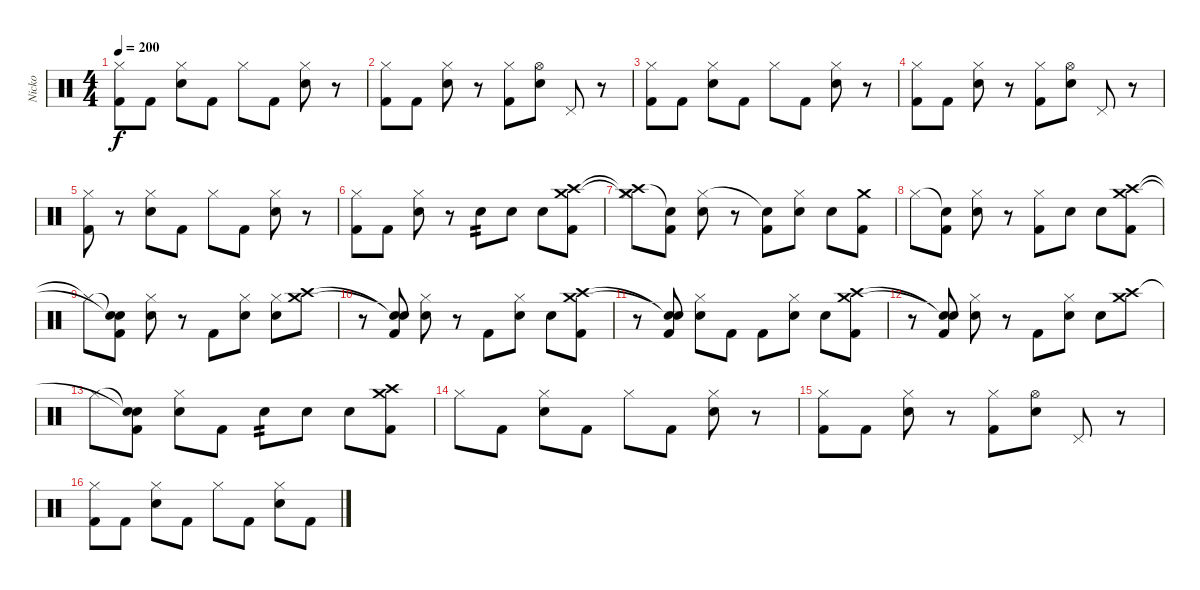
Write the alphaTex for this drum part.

\track ("Nicko" "Nicko") {instrument percussion}
\staff {score}
\articulation defaults
\ts (4 4)
\tempo 200
\clef neutral
\ks c
("Hi-Hat (closed)" "Kick (hit) 2").8{dy f} "Kick (hit) 2".8 ("Hi-Hat (closed)" "Electric Snare (hit)").8 "Kick (hit) 2".8 "Hi-Hat (closed)".8 "Kick (hit) 2".8 ("Hi-Hat (closed)" "Electric Snare (hit)").8 r.8 |
("Hi-Hat (closed)" "Kick (hit) 2").8 "Kick (hit) 2".8 ("Hi-Hat (closed)" "Electric Snare (hit)").8 r.8 ("Hi-Hat (closed)" "Kick (hit) 2").8 ("Hi-Hat (open)" "Electric Snare (hit)").8 "Pedal Hi-Hat (hit)".8 r.8 |
("Hi-Hat (closed)" "Kick (hit) 2").8 "Kick (hit) 2".8 ("Hi-Hat (closed)" "Electric Snare (hit)").8 "Kick (hit) 2".8 "Hi-Hat (closed)".8 "Kick (hit) 2".8 ("Hi-Hat (closed)" "Electric Snare (hit)").8 r.8 |
("Hi-Hat (closed)" "Kick (hit) 2").8 "Kick (hit) 2".8 ("Hi-Hat (closed)" "Electric Snare (hit)").8 r.8 ("Hi-Hat (closed)" "Kick (hit) 2").8 ("Hi-Hat (open)" "Electric Snare (hit)").8 "Pedal Hi-Hat (hit)".8 r.8 |
("Hi-Hat (closed)" "Kick (hit) 2").8 r.8 ("Hi-Hat (closed)" "Electric Snare (hit)").8 "Kick (hit) 2".8 "Hi-Hat (closed)".8 "Kick (hit) 2".8 ("Hi-Hat (closed)" "Electric Snare (hit)").8 r.8 |
("Hi-Hat (closed)" "Kick (hit) 2").8 "Kick (hit) 2".8 ("Hi-Hat (closed)" "Electric Snare (hit)").8 r.8 "Electric Snare (hit)".8{tp 2} "Electric Snare (hit)".8 "Electric Snare (hit)".8 ("Crash high (hit)" "Crash medium (hit)" "Kick (hit) 2").8 |
("Crash high (hit)"{t} "Crash medium (hit)"{t} "Hi-Hat (closed)").8 ("Snare (hit)"{t} "Kick (hit) 2").8 ("Hi-Hat (closed)" "Electric Snare (hit)").8 r.8 ("Snare (hit)"{t} "Kick (hit) 2").8 ("Hi-Hat (closed)" "Electric Snare (hit)").8 "Electric Snare (hit)".8 ("Crash medium (hit)" "Kick (hit) 2").8 |
"Hi-Hat (closed)".8 ("Snare (hit)"{t} "Kick (hit) 2").8 ("Hi-Hat (closed)" "Electric Snare (hit)").8 r.8 ("Hi-Hat (closed)" "Kick (hit) 2").8 "Electric Snare (hit)".8 "Electric Snare (hit)".8 ("Crash high (hit)" "Crash medium (hit)" "Kick (hit) 2").8 |
"Hi-Hat (closed)"{t}.8 ("Snare (hit)"{t} "Snare (hit)"{t} "Kick (hit) 2").8 ("Hi-Hat (closed)" "Electric Snare (hit)").8 r.8 "Kick (hit) 2".8 ("Hi-Hat (closed)" "Electric Snare (hit)").8 ("Hi-Hat (closed)" "Electric Snare (hit)").8 ("Crash medium (hit)" "Crash high (hit)").8 |
r.8 ("Snare (hit)"{t} "Snare (hit)"{t} "Kick (hit) 2").8 ("Hi-Hat (closed)" "Electric Snare (hit)").8 r.8 "Kick (hit) 2".8 ("Hi-Hat (closed)" "Electric Snare (hit)").8 "Electric Snare (hit)".8 ("Crash medium (hit)" "Crash high (hit)" "Kick (hit) 2").8 |
r.8 ("Snare (hit)"{t} "Snare (hit)"{t} "Kick (hit) 2").8 ("Hi-Hat (closed)" "Electric Snare (hit)").8 "Kick (hit) 2".8 "Kick (hit) 2".8 ("Hi-Hat (closed)" "Electric Snare (hit)").8 "Electric Snare (hit)".8 ("Crash medium (hit)" "Crash high (hit)" "Kick (hit) 2").8 |
r.8 ("Snare (hit)"{t} "Snare (hit)"{t} "Kick (hit) 2").8 ("Hi-Hat (closed)" "Electric Snare (hit)").8 r.8 "Kick (hit) 2".8 ("Hi-Hat (closed)" "Electric Snare (hit)").8 "Electric Snare (hit)".8 ("Crash medium (hit)" "Crash high (hit)").8 |
"Hi-Hat (closed)".8 ("Snare (hit)"{t} "Snare (hit)"{t} "Kick (hit) 2").8 ("Hi-Hat (closed)" "Electric Snare (hit)").8 "Kick (hit) 2".8 "Electric Snare (hit)".8{tp 2} "Electric Snare (hit)".8 "Electric Snare (hit)".8 ("Crash medium (hit)" "Crash high (hit)" "Kick (hit) 2").8 |
"Hi-Hat (closed)".8 "Kick (hit) 2".8 ("Hi-Hat (closed)" "Electric Snare (hit)").8 "Kick (hit) 2".8 "Hi-Hat (closed)".8 "Kick (hit) 2".8 ("Hi-Hat (closed)" "Electric Snare (hit)").8 r.8 |
("Hi-Hat (closed)" "Kick (hit) 2").8 "Kick (hit) 2".8 ("Hi-Hat (closed)" "Electric Snare (hit)").8 r.8 ("Hi-Hat (closed)" "Kick (hit) 2").8 ("Hi-Hat (open)" "Electric Snare (hit)").8 "Pedal Hi-Hat (hit)".8 r.8 |
("Hi-Hat (closed)" "Kick (hit) 2").8 "Kick (hit) 2".8 ("Hi-Hat (closed)" "Electric Snare (hit)").8 "Kick (hit) 2".8 "Hi-Hat (closed)".8 "Kick (hit) 2".8 ("Hi-Hat (closed)" "Electric Snare (hit)").8 "Kick (hit) 2".8
